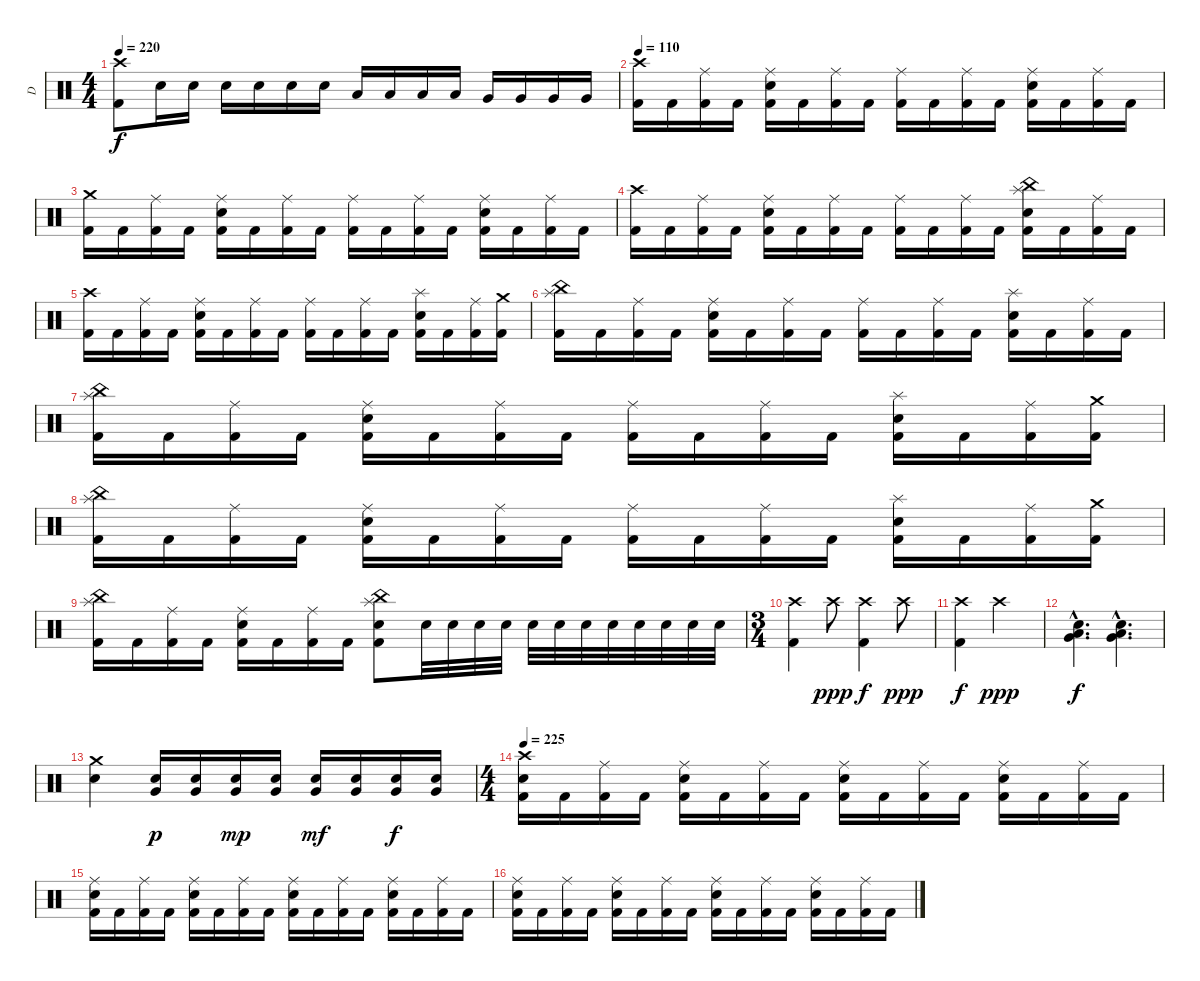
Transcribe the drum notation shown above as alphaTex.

\track ("D" "D") {instrument percussion}
\staff {score}
\articulation defaults
\ts (4 4)
\tempo 220
\clef neutral
\ks c
("Kick (hit) 2" "Crash high (hit)").8{dy f} "Electric Snare (hit)".16 "Electric Snare (hit)".16 "Electric Snare (hit)".16 "Electric Snare (hit)".16 "Electric Snare (hit)".16 "Electric Snare (hit)".16 "Low Tom (hit)".16 "Low Tom (hit)".16 "Low Tom (hit)".16 "Low Tom (hit)".16 "Very Low Tom (hit)".16 "Very Low Tom (hit)".16 "Very Low Tom (hit)".16 "Very Low Tom (hit)".16 |
\tempo 110
("Crash high (hit)" "Kick (hit) 2").16 "Kick (hit) 2".16 ("Kick (hit) 2" "Ride (middle)").16 "Kick (hit) 2".16 ("Kick (hit) 2" "Ride (middle)" "Electric Snare (hit)").16 "Kick (hit) 2".16 ("Kick (hit) 2" "Ride (middle)").16 "Kick (hit) 2".16 ("Kick (hit) 2" "Ride (middle)").16 "Kick (hit) 2".16 ("Kick (hit) 2" "Ride (middle)").16 "Kick (hit) 2".16 ("Kick (hit) 2" "Ride (middle)" "Electric Snare (hit)").16 "Kick (hit) 2".16 ("Kick (hit) 2" "Ride (middle)").16 "Kick (hit) 2".16 |
("Crash medium (hit)" "Kick (hit) 2").16 "Kick (hit) 2".16 ("Kick (hit) 2" "Ride (middle)").16 "Kick (hit) 2".16 ("Kick (hit) 2" "Ride (middle)" "Electric Snare (hit)").16 "Kick (hit) 2".16 ("Kick (hit) 2" "Ride (middle)").16 "Kick (hit) 2".16 ("Kick (hit) 2" "Ride (middle)").16 "Kick (hit) 2".16 ("Kick (hit) 2" "Ride (middle)").16 "Kick (hit) 2".16 ("Kick (hit) 2" "Ride (middle)" "Electric Snare (hit)").16 "Kick (hit) 2".16 ("Kick (hit) 2" "Ride (middle)").16 "Kick (hit) 2".16 |
("Crash high (hit)" "Kick (hit) 2").16 "Kick (hit) 2".16 ("Kick (hit) 2" "Ride (middle)").16 "Kick (hit) 2".16 ("Kick (hit) 2" "Ride (middle)" "Electric Snare (hit)").16 "Kick (hit) 2".16 ("Kick (hit) 2" "Ride (middle)").16 "Kick (hit) 2".16 ("Kick (hit) 2" "Ride (middle)").16 "Kick (hit) 2".16 ("Kick (hit) 2" "Ride (middle)").16 "Kick (hit) 2".16 ("Kick (hit) 2" "Splash (hit)" "Electric Snare (hit)" "China (hit)").16 "Kick (hit) 2".16 ("Kick (hit) 2" "Ride (middle)").16 "Kick (hit) 2".16 |
("Crash high (hit)" "Kick (hit) 2").16 "Kick (hit) 2".16 ("Kick (hit) 2" "Ride (middle)").16 "Kick (hit) 2".16 ("Kick (hit) 2" "Ride (middle)" "Electric Snare (hit)").16 "Kick (hit) 2".16 ("Kick (hit) 2" "Ride (middle)").16 "Kick (hit) 2".16 ("Kick (hit) 2" "Ride (middle)").16 "Kick (hit) 2".16 ("Kick (hit) 2" "Ride (middle)").16 "Kick (hit) 2".16 ("Kick (hit) 2" "Splash (hit)" "Electric Snare (hit)").16 "Kick (hit) 2".16 ("Kick (hit) 2" "Ride (middle)").16 ("Kick (hit) 2" "Crash medium (hit)").16 |
("Splash (hit)" "Kick (hit) 2" "China (hit)").16 "Kick (hit) 2".16 ("Kick (hit) 2" "Ride (middle)").16 "Kick (hit) 2".16 ("Kick (hit) 2" "Ride (middle)" "Electric Snare (hit)").16 "Kick (hit) 2".16 ("Kick (hit) 2" "Ride (middle)").16 "Kick (hit) 2".16 ("Kick (hit) 2" "Ride (middle)").16 "Kick (hit) 2".16 ("Kick (hit) 2" "Ride (middle)").16 "Kick (hit) 2".16 ("Kick (hit) 2" "Splash (hit)" "Electric Snare (hit)").16 "Kick (hit) 2".16 ("Kick (hit) 2" "Ride (middle)").16 "Kick (hit) 2".16 |
("Splash (hit)" "Kick (hit) 2" "China (hit)").16 "Kick (hit) 2".16 ("Kick (hit) 2" "Ride (middle)").16 "Kick (hit) 2".16 ("Kick (hit) 2" "Ride (middle)" "Electric Snare (hit)").16 "Kick (hit) 2".16 ("Kick (hit) 2" "Ride (middle)").16 "Kick (hit) 2".16 ("Kick (hit) 2" "Ride (middle)").16 "Kick (hit) 2".16 ("Kick (hit) 2" "Ride (middle)").16 "Kick (hit) 2".16 ("Kick (hit) 2" "Splash (hit)" "Electric Snare (hit)").16 "Kick (hit) 2".16 ("Kick (hit) 2" "Ride (middle)").16 ("Kick (hit) 2" "Crash medium (hit)").16 |
("Splash (hit)" "Kick (hit) 2" "China (hit)").16 "Kick (hit) 2".16 ("Kick (hit) 2" "Ride (middle)").16 "Kick (hit) 2".16 ("Kick (hit) 2" "Ride (middle)" "Electric Snare (hit)").16 "Kick (hit) 2".16 ("Kick (hit) 2" "Ride (middle)").16 "Kick (hit) 2".16 ("Kick (hit) 2" "Ride (middle)").16 "Kick (hit) 2".16 ("Kick (hit) 2" "Ride (middle)").16 "Kick (hit) 2".16 ("Kick (hit) 2" "Splash (hit)" "Electric Snare (hit)").16 "Kick (hit) 2".16 ("Kick (hit) 2" "Ride (middle)").16 ("Kick (hit) 2" "Crash medium (hit)").16 |
("Splash (hit)" "Kick (hit) 2" "China (hit)").16 "Kick (hit) 2".16 ("Kick (hit) 2" "Ride (middle)").16 "Kick (hit) 2".16 ("Kick (hit) 2" "Ride (middle)" "Electric Snare (hit)").16 "Kick (hit) 2".16 ("Kick (hit) 2" "Ride (middle)").16 "Kick (hit) 2".16 ("Kick (hit) 2" "Splash (hit)" "Electric Snare (hit)" "China (hit)").8 "Electric Snare (hit)".32 "Electric Snare (hit)".32 "Electric Snare (hit)".32 "Electric Snare (hit)".32 "Electric Snare (hit)".32 "Electric Snare (hit)".32 "Electric Snare (hit)".32 "Electric Snare (hit)".32 "Electric Snare (hit)".32 "Electric Snare (hit)".32 "Electric Snare (hit)".32 "Electric Snare (hit)".32 |
\ts (3 4)
("Crash high (hit)" "Kick (hit) 2").4 "Crash high (hit)".8{dy ppp} ("Crash high (hit)" "Kick (hit) 2").4{dy f} "Crash high (hit)".8{dy ppp} |
("Crash high (hit)" "Kick (hit) 2").4{dy f} "Crash high (hit)".2{dy ppp} |
("Low Floor Tom (hit)"{hac} "Electric Snare (hit)"{hac} "Very Low Tom (hit)"{hac}).4{d dy f} ("Low Floor Tom (hit)"{hac} "Electric Snare (hit)"{hac} "Very Low Tom (hit)"{hac}).4{d} |
("Crash medium (hit)" "Electric Snare (hit)").4 ("Electric Snare (hit)" "Very Low Tom (hit)").16{dy p} ("Electric Snare (hit)" "Very Low Tom (hit)").16 ("Electric Snare (hit)" "Very Low Tom (hit)").16{dy mp} ("Electric Snare (hit)" "Very Low Tom (hit)").16 ("Electric Snare (hit)" "Very Low Tom (hit)").16{dy mf} ("Electric Snare (hit)" "Very Low Tom (hit)").16 ("Electric Snare (hit)" "Very Low Tom (hit)").16{dy f} ("Electric Snare (hit)" "Very Low Tom (hit)").16 |
\ts (4 4)
\tempo 225
("Crash high (hit)" "Electric Snare (hit)" "Kick (hit) 2").16 "Kick (hit) 2".16 ("Ride (middle)" "Kick (hit) 2").16 "Kick (hit) 2".16 ("Ride (middle)" "Electric Snare (hit)" "Kick (hit) 2").16 "Kick (hit) 2".16 ("Ride (middle)" "Kick (hit) 2").16 "Kick (hit) 2".16 ("Ride (middle)" "Electric Snare (hit)" "Kick (hit) 2").16 "Kick (hit) 2".16 ("Ride (middle)" "Kick (hit) 2").16 "Kick (hit) 2".16 ("Ride (middle)" "Electric Snare (hit)" "Kick (hit) 2").16 "Kick (hit) 2".16 ("Ride (middle)" "Kick (hit) 2").16 "Kick (hit) 2".16 |
("Ride (middle)" "Electric Snare (hit)" "Kick (hit) 2").16 "Kick (hit) 2".16 ("Ride (middle)" "Kick (hit) 2").16 "Kick (hit) 2".16 ("Ride (middle)" "Electric Snare (hit)" "Kick (hit) 2").16 "Kick (hit) 2".16 ("Ride (middle)" "Kick (hit) 2").16 "Kick (hit) 2".16 ("Ride (middle)" "Electric Snare (hit)" "Kick (hit) 2").16 "Kick (hit) 2".16 ("Ride (middle)" "Kick (hit) 2").16 "Kick (hit) 2".16 ("Ride (middle)" "Electric Snare (hit)" "Kick (hit) 2").16 "Kick (hit) 2".16 ("Ride (middle)" "Kick (hit) 2").16 "Kick (hit) 2".16 |
("Ride (middle)" "Electric Snare (hit)" "Kick (hit) 2").16 "Kick (hit) 2".16 ("Ride (middle)" "Kick (hit) 2").16 "Kick (hit) 2".16 ("Ride (middle)" "Electric Snare (hit)" "Kick (hit) 2").16 "Kick (hit) 2".16 ("Ride (middle)" "Kick (hit) 2").16 "Kick (hit) 2".16 ("Ride (middle)" "Electric Snare (hit)" "Kick (hit) 2").16 "Kick (hit) 2".16 ("Ride (middle)" "Kick (hit) 2").16 "Kick (hit) 2".16 ("Ride (middle)" "Electric Snare (hit)" "Kick (hit) 2").16 "Kick (hit) 2".16 ("Ride (middle)" "Kick (hit) 2").16 "Kick (hit) 2".16
